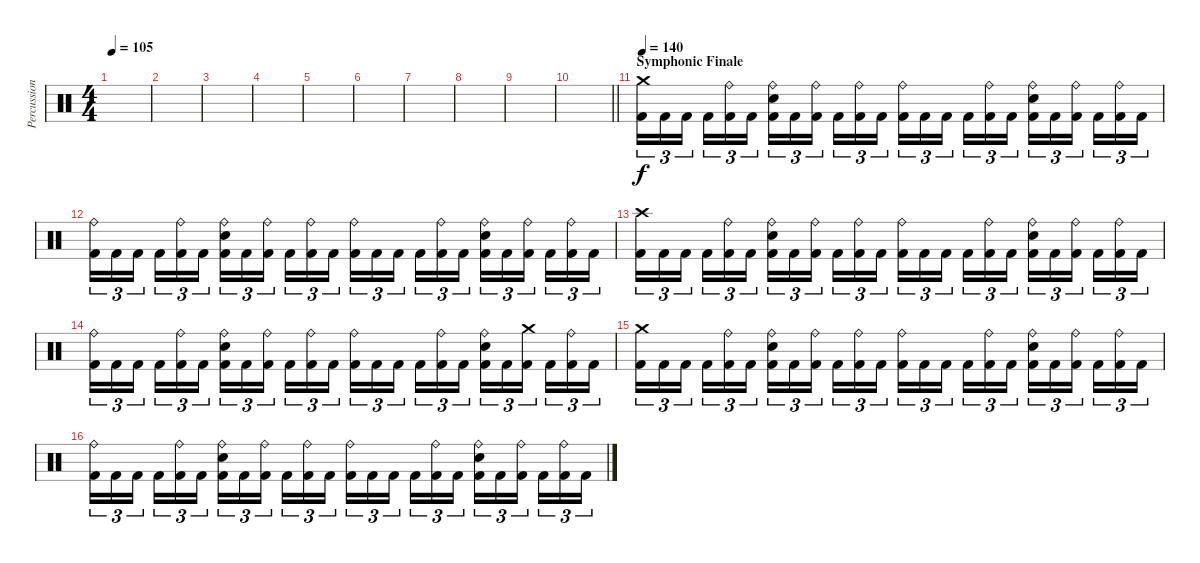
\track ("Percussions" "Percussion") {instrument percussion}
\staff {score}
\articulation defaults
\ts (4 4)
\tempo 105
\clef neutral
\ks c
|
|
|
|
|
|
|
|
|
\barLineRight lightlight
|
\section ("" "Symphonic Finale")
\tempo 140
("Crash medium (hit)" "Kick (hit) 2").16{tu (3 2)} "Kick (hit) 2".16{tu (3 2)} "Kick (hit) 2".16{tu (3 2) beam splitsecondary} "Kick (hit) 2".16{tu (3 2)} ("Ride (bell)" "Kick (hit) 2").16{tu (3 2)} "Kick (hit) 2".16{tu (3 2)} ("Ride (bell)" "Snare (hit) 2" "Kick (hit) 2").16{tu (3 2)} "Kick (hit) 2".16{tu (3 2)} ("Ride (bell)" "Kick (hit) 2").16{tu (3 2) beam splitsecondary} "Kick (hit) 2".16{tu (3 2)} ("Ride (bell)" "Kick (hit) 2").16{tu (3 2)} "Kick (hit) 2".16{tu (3 2)} ("Ride (bell)" "Kick (hit) 2").16{tu (3 2)} "Kick (hit) 2".16{tu (3 2)} "Kick (hit) 2".16{tu (3 2) beam splitsecondary} "Kick (hit) 2".16{tu (3 2)} ("Ride (bell)" "Kick (hit) 2").16{tu (3 2)} "Kick (hit) 2".16{tu (3 2)} ("Ride (bell)" "Snare (hit) 2" "Kick (hit) 2").16{tu (3 2)} "Kick (hit) 2".16{tu (3 2)} ("Ride (bell)" "Kick (hit) 2").16{tu (3 2) beam splitsecondary} "Kick (hit) 2".16{tu (3 2)} ("Ride (bell)" "Kick (hit) 2").16{tu (3 2)} "Kick (hit) 2".16{tu (3 2)} |
("Ride (bell)" "Kick (hit) 2").16{tu (3 2)} "Kick (hit) 2".16{tu (3 2)} "Kick (hit) 2".16{tu (3 2) beam splitsecondary} "Kick (hit) 2".16{tu (3 2)} ("Ride (bell)" "Kick (hit) 2").16{tu (3 2)} "Kick (hit) 2".16{tu (3 2)} ("Ride (bell)" "Snare (hit) 2" "Kick (hit) 2").16{tu (3 2)} "Kick (hit) 2".16{tu (3 2)} ("Ride (bell)" "Kick (hit) 2").16{tu (3 2) beam splitsecondary} "Kick (hit) 2".16{tu (3 2)} ("Ride (bell)" "Kick (hit) 2").16{tu (3 2)} "Kick (hit) 2".16{tu (3 2)} ("Ride (bell)" "Kick (hit) 2").16{tu (3 2)} "Kick (hit) 2".16{tu (3 2)} "Kick (hit) 2".16{tu (3 2) beam splitsecondary} "Kick (hit) 2".16{tu (3 2)} ("Ride (bell)" "Kick (hit) 2").16{tu (3 2)} "Kick (hit) 2".16{tu (3 2)} ("Ride (bell)" "Snare (hit) 2" "Kick (hit) 2").16{tu (3 2)} "Kick (hit) 2".16{tu (3 2)} ("Ride (bell)" "Kick (hit) 2").16{tu (3 2) beam splitsecondary} "Kick (hit) 2".16{tu (3 2)} ("Ride (bell)" "Kick (hit) 2").16{tu (3 2)} "Kick (hit) 2".16{tu (3 2)} |
("Crash high (hit)" "Kick (hit) 2").16{tu (3 2)} "Kick (hit) 2".16{tu (3 2)} "Kick (hit) 2".16{tu (3 2) beam splitsecondary} "Kick (hit) 2".16{tu (3 2)} ("Ride (bell)" "Kick (hit) 2").16{tu (3 2)} "Kick (hit) 2".16{tu (3 2)} ("Ride (bell)" "Snare (hit) 2" "Kick (hit) 2").16{tu (3 2)} "Kick (hit) 2".16{tu (3 2)} ("Ride (bell)" "Kick (hit) 2").16{tu (3 2) beam splitsecondary} "Kick (hit) 2".16{tu (3 2)} ("Ride (bell)" "Kick (hit) 2").16{tu (3 2)} "Kick (hit) 2".16{tu (3 2)} ("Ride (bell)" "Kick (hit) 2").16{tu (3 2)} "Kick (hit) 2".16{tu (3 2)} "Kick (hit) 2".16{tu (3 2) beam splitsecondary} "Kick (hit) 2".16{tu (3 2)} ("Ride (bell)" "Kick (hit) 2").16{tu (3 2)} "Kick (hit) 2".16{tu (3 2)} ("Ride (bell)" "Snare (hit) 2" "Kick (hit) 2").16{tu (3 2)} "Kick (hit) 2".16{tu (3 2)} ("Ride (bell)" "Kick (hit) 2").16{tu (3 2) beam splitsecondary} "Kick (hit) 2".16{tu (3 2)} ("Ride (bell)" "Kick (hit) 2").16{tu (3 2)} "Kick (hit) 2".16{tu (3 2)} |
("Ride (bell)" "Kick (hit) 2").16{tu (3 2)} "Kick (hit) 2".16{tu (3 2)} "Kick (hit) 2".16{tu (3 2) beam splitsecondary} "Kick (hit) 2".16{tu (3 2)} ("Ride (bell)" "Kick (hit) 2").16{tu (3 2)} "Kick (hit) 2".16{tu (3 2)} ("Ride (bell)" "Snare (hit) 2" "Kick (hit) 2").16{tu (3 2)} "Kick (hit) 2".16{tu (3 2)} ("Ride (bell)" "Kick (hit) 2").16{tu (3 2) beam splitsecondary} "Kick (hit) 2".16{tu (3 2)} ("Ride (bell)" "Kick (hit) 2").16{tu (3 2)} "Kick (hit) 2".16{tu (3 2)} ("Ride (bell)" "Kick (hit) 2").16{tu (3 2)} "Kick (hit) 2".16{tu (3 2)} "Kick (hit) 2".16{tu (3 2) beam splitsecondary} "Kick (hit) 2".16{tu (3 2)} ("Ride (bell)" "Kick (hit) 2").16{tu (3 2)} "Kick (hit) 2".16{tu (3 2)} ("Ride (bell)" "Snare (hit) 2" "Kick (hit) 2").16{tu (3 2)} "Kick (hit) 2".16{tu (3 2)} ("Crash medium (hit)" "Kick (hit) 2").16{tu (3 2) beam splitsecondary} "Kick (hit) 2".16{tu (3 2)} ("Ride (bell)" "Kick (hit) 2").16{tu (3 2)} "Kick (hit) 2".16{tu (3 2)} |
("Crash medium (hit)" "Kick (hit) 2").16{tu (3 2)} "Kick (hit) 2".16{tu (3 2)} "Kick (hit) 2".16{tu (3 2) beam splitsecondary} "Kick (hit) 2".16{tu (3 2)} ("Ride (bell)" "Kick (hit) 2").16{tu (3 2)} "Kick (hit) 2".16{tu (3 2)} ("Ride (bell)" "Snare (hit) 2" "Kick (hit) 2").16{tu (3 2)} "Kick (hit) 2".16{tu (3 2)} ("Ride (bell)" "Kick (hit) 2").16{tu (3 2) beam splitsecondary} "Kick (hit) 2".16{tu (3 2)} ("Ride (bell)" "Kick (hit) 2").16{tu (3 2)} "Kick (hit) 2".16{tu (3 2)} ("Ride (bell)" "Kick (hit) 2").16{tu (3 2)} "Kick (hit) 2".16{tu (3 2)} "Kick (hit) 2".16{tu (3 2) beam splitsecondary} "Kick (hit) 2".16{tu (3 2)} ("Ride (bell)" "Kick (hit) 2").16{tu (3 2)} "Kick (hit) 2".16{tu (3 2)} ("Ride (bell)" "Snare (hit) 2" "Kick (hit) 2").16{tu (3 2)} "Kick (hit) 2".16{tu (3 2)} ("Ride (bell)" "Kick (hit) 2").16{tu (3 2) beam splitsecondary} "Kick (hit) 2".16{tu (3 2)} ("Ride (bell)" "Kick (hit) 2").16{tu (3 2)} "Kick (hit) 2".16{tu (3 2)} |
("Ride (bell)" "Kick (hit) 2").16{tu (3 2)} "Kick (hit) 2".16{tu (3 2)} "Kick (hit) 2".16{tu (3 2) beam splitsecondary} "Kick (hit) 2".16{tu (3 2)} ("Ride (bell)" "Kick (hit) 2").16{tu (3 2)} "Kick (hit) 2".16{tu (3 2)} ("Ride (bell)" "Snare (hit) 2" "Kick (hit) 2").16{tu (3 2)} "Kick (hit) 2".16{tu (3 2)} ("Ride (bell)" "Kick (hit) 2").16{tu (3 2) beam splitsecondary} "Kick (hit) 2".16{tu (3 2)} ("Ride (bell)" "Kick (hit) 2").16{tu (3 2)} "Kick (hit) 2".16{tu (3 2)} ("Ride (bell)" "Kick (hit) 2").16{tu (3 2)} "Kick (hit) 2".16{tu (3 2)} "Kick (hit) 2".16{tu (3 2) beam splitsecondary} "Kick (hit) 2".16{tu (3 2)} ("Ride (bell)" "Kick (hit) 2").16{tu (3 2)} "Kick (hit) 2".16{tu (3 2)} ("Ride (bell)" "Snare (hit) 2" "Kick (hit) 2").16{tu (3 2)} "Kick (hit) 2".16{tu (3 2)} ("Ride (bell)" "Kick (hit) 2").16{tu (3 2) beam splitsecondary} "Kick (hit) 2".16{tu (3 2)} ("Ride (bell)" "Kick (hit) 2").16{tu (3 2)} "Kick (hit) 2".16{tu (3 2)}
